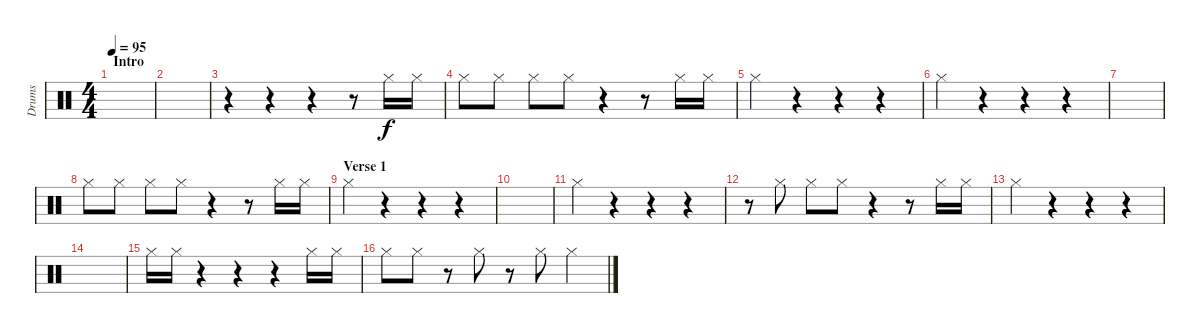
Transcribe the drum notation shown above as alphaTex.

\track ("Drums" "Drums") {instrument percussion}
\staff {score}
\articulation defaults
\ts (4 4)
\section ("" "Intro")
\tempo 95
\clef neutral
\ks c
|
|
r.4 r.4 r.4 r.8 "Hi-Hat (closed)".16 "Hi-Hat (closed)".16 |
"Hi-Hat (closed)".8 "Hi-Hat (closed)".8 "Hi-Hat (closed)".8 "Hi-Hat (closed)".8 r.4 r.8 "Hi-Hat (closed)".16 "Hi-Hat (closed)".16 |
"Hi-Hat (closed)".4 r.4 r.4 r.4 |
"Hi-Hat (closed)".4 r.4 r.4 r.4 |
|
"Hi-Hat (closed)".8 "Hi-Hat (closed)".8 "Hi-Hat (closed)".8 "Hi-Hat (closed)".8 r.4 r.8 "Hi-Hat (closed)".16 "Hi-Hat (closed)".16 |
\section ("" "Verse 1")
"Hi-Hat (closed)".4 r.4 r.4 r.4 |
|
"Hi-Hat (closed)".4 r.4 r.4 r.4 |
r.8 "Hi-Hat (closed)".8 "Hi-Hat (closed)".8 "Hi-Hat (closed)".8 r.4 r.8 "Hi-Hat (closed)".16 "Hi-Hat (closed)".16 |
"Hi-Hat (closed)".4 r.4 r.4 r.4 |
|
"Hi-Hat (closed)".16 "Hi-Hat (closed)".16 r.4 r.4 r.4 "Hi-Hat (closed)".16 "Hi-Hat (closed)".16 |
"Hi-Hat (closed)".8 "Hi-Hat (closed)".8 r.8 "Hi-Hat (closed)".8 r.8 "Hi-Hat (closed)".8 "Hi-Hat (closed)".4
